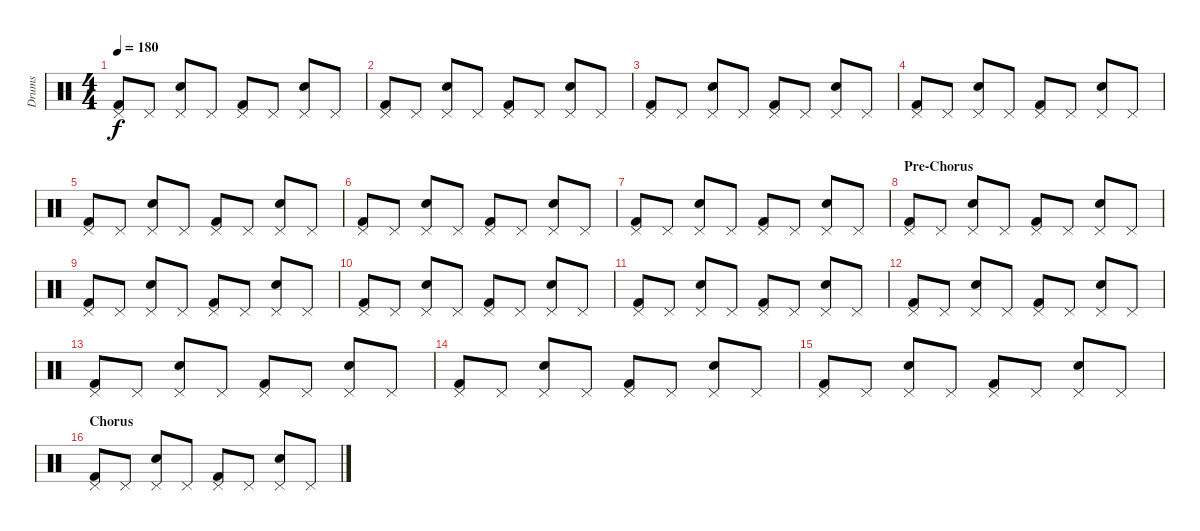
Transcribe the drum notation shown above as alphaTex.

\track ("Drums" "Drums") {instrument percussion}
\staff {score}
\articulation defaults
\ts (4 4)
\tempo 180
\clef neutral
\ks c
("Pedal Hi-Hat (hit)" "Kick (hit) 2").8{dy f} "Pedal Hi-Hat (hit)".8 ("Pedal Hi-Hat (hit)" "Electric Snare (hit)").8 "Pedal Hi-Hat (hit)".8 ("Pedal Hi-Hat (hit)" "Kick (hit) 2").8 "Pedal Hi-Hat (hit)".8 ("Pedal Hi-Hat (hit)" "Electric Snare (hit)").8 "Pedal Hi-Hat (hit)".8 |
("Pedal Hi-Hat (hit)" "Kick (hit) 2").8 "Pedal Hi-Hat (hit)".8 ("Pedal Hi-Hat (hit)" "Electric Snare (hit)").8 "Pedal Hi-Hat (hit)".8 ("Pedal Hi-Hat (hit)" "Kick (hit) 2").8 "Pedal Hi-Hat (hit)".8 ("Pedal Hi-Hat (hit)" "Electric Snare (hit)").8 "Pedal Hi-Hat (hit)".8 |
("Pedal Hi-Hat (hit)" "Kick (hit) 2").8 "Pedal Hi-Hat (hit)".8 ("Pedal Hi-Hat (hit)" "Electric Snare (hit)").8 "Pedal Hi-Hat (hit)".8 ("Pedal Hi-Hat (hit)" "Kick (hit) 2").8 "Pedal Hi-Hat (hit)".8 ("Pedal Hi-Hat (hit)" "Electric Snare (hit)").8 "Pedal Hi-Hat (hit)".8 |
("Pedal Hi-Hat (hit)" "Kick (hit) 2").8 "Pedal Hi-Hat (hit)".8 ("Pedal Hi-Hat (hit)" "Electric Snare (hit)").8 "Pedal Hi-Hat (hit)".8 ("Pedal Hi-Hat (hit)" "Kick (hit) 2").8 "Pedal Hi-Hat (hit)".8 ("Pedal Hi-Hat (hit)" "Electric Snare (hit)").8 "Pedal Hi-Hat (hit)".8 |
("Pedal Hi-Hat (hit)" "Kick (hit) 2").8 "Pedal Hi-Hat (hit)".8 ("Pedal Hi-Hat (hit)" "Electric Snare (hit)").8 "Pedal Hi-Hat (hit)".8 ("Pedal Hi-Hat (hit)" "Kick (hit) 2").8 "Pedal Hi-Hat (hit)".8 ("Pedal Hi-Hat (hit)" "Electric Snare (hit)").8 "Pedal Hi-Hat (hit)".8 |
("Pedal Hi-Hat (hit)" "Kick (hit) 2").8 "Pedal Hi-Hat (hit)".8 ("Pedal Hi-Hat (hit)" "Electric Snare (hit)").8 "Pedal Hi-Hat (hit)".8 ("Pedal Hi-Hat (hit)" "Kick (hit) 2").8 "Pedal Hi-Hat (hit)".8 ("Pedal Hi-Hat (hit)" "Electric Snare (hit)").8 "Pedal Hi-Hat (hit)".8 |
("Pedal Hi-Hat (hit)" "Kick (hit) 2").8 "Pedal Hi-Hat (hit)".8 ("Pedal Hi-Hat (hit)" "Electric Snare (hit)").8 "Pedal Hi-Hat (hit)".8 ("Pedal Hi-Hat (hit)" "Kick (hit) 2").8 "Pedal Hi-Hat (hit)".8 ("Pedal Hi-Hat (hit)" "Electric Snare (hit)").8 "Pedal Hi-Hat (hit)".8 |
\section ("" "Pre-Chorus")
("Pedal Hi-Hat (hit)" "Kick (hit) 2").8 "Pedal Hi-Hat (hit)".8 ("Pedal Hi-Hat (hit)" "Electric Snare (hit)").8 "Pedal Hi-Hat (hit)".8 ("Pedal Hi-Hat (hit)" "Kick (hit) 2").8 "Pedal Hi-Hat (hit)".8 ("Pedal Hi-Hat (hit)" "Electric Snare (hit)").8 "Pedal Hi-Hat (hit)".8 |
("Pedal Hi-Hat (hit)" "Kick (hit) 2").8 "Pedal Hi-Hat (hit)".8 ("Pedal Hi-Hat (hit)" "Electric Snare (hit)").8 "Pedal Hi-Hat (hit)".8 ("Pedal Hi-Hat (hit)" "Kick (hit) 2").8 "Pedal Hi-Hat (hit)".8 ("Pedal Hi-Hat (hit)" "Electric Snare (hit)").8 "Pedal Hi-Hat (hit)".8 |
("Pedal Hi-Hat (hit)" "Kick (hit) 2").8 "Pedal Hi-Hat (hit)".8 ("Pedal Hi-Hat (hit)" "Electric Snare (hit)").8 "Pedal Hi-Hat (hit)".8 ("Pedal Hi-Hat (hit)" "Kick (hit) 2").8 "Pedal Hi-Hat (hit)".8 ("Pedal Hi-Hat (hit)" "Electric Snare (hit)").8 "Pedal Hi-Hat (hit)".8 |
("Pedal Hi-Hat (hit)" "Kick (hit) 2").8 "Pedal Hi-Hat (hit)".8 ("Pedal Hi-Hat (hit)" "Electric Snare (hit)").8 "Pedal Hi-Hat (hit)".8 ("Pedal Hi-Hat (hit)" "Kick (hit) 2").8 "Pedal Hi-Hat (hit)".8 ("Pedal Hi-Hat (hit)" "Electric Snare (hit)").8 "Pedal Hi-Hat (hit)".8 |
("Pedal Hi-Hat (hit)" "Kick (hit) 2").8 "Pedal Hi-Hat (hit)".8 ("Pedal Hi-Hat (hit)" "Electric Snare (hit)").8 "Pedal Hi-Hat (hit)".8 ("Pedal Hi-Hat (hit)" "Kick (hit) 2").8 "Pedal Hi-Hat (hit)".8 ("Pedal Hi-Hat (hit)" "Electric Snare (hit)").8 "Pedal Hi-Hat (hit)".8 |
("Pedal Hi-Hat (hit)" "Kick (hit) 2").8 "Pedal Hi-Hat (hit)".8 ("Pedal Hi-Hat (hit)" "Electric Snare (hit)").8 "Pedal Hi-Hat (hit)".8 ("Pedal Hi-Hat (hit)" "Kick (hit) 2").8 "Pedal Hi-Hat (hit)".8 ("Pedal Hi-Hat (hit)" "Electric Snare (hit)").8 "Pedal Hi-Hat (hit)".8 |
("Pedal Hi-Hat (hit)" "Kick (hit) 2").8 "Pedal Hi-Hat (hit)".8 ("Pedal Hi-Hat (hit)" "Electric Snare (hit)").8 "Pedal Hi-Hat (hit)".8 ("Pedal Hi-Hat (hit)" "Kick (hit) 2").8 "Pedal Hi-Hat (hit)".8 ("Pedal Hi-Hat (hit)" "Electric Snare (hit)").8 "Pedal Hi-Hat (hit)".8 |
("Pedal Hi-Hat (hit)" "Kick (hit) 2").8 "Pedal Hi-Hat (hit)".8 ("Pedal Hi-Hat (hit)" "Electric Snare (hit)").8 "Pedal Hi-Hat (hit)".8 ("Pedal Hi-Hat (hit)" "Kick (hit) 2").8 "Pedal Hi-Hat (hit)".8 ("Pedal Hi-Hat (hit)" "Electric Snare (hit)").8 "Pedal Hi-Hat (hit)".8 |
\section ("" "Chorus")
("Pedal Hi-Hat (hit)" "Kick (hit) 2").8 "Pedal Hi-Hat (hit)".8 ("Pedal Hi-Hat (hit)" "Electric Snare (hit)").8 "Pedal Hi-Hat (hit)".8 ("Pedal Hi-Hat (hit)" "Kick (hit) 2").8 "Pedal Hi-Hat (hit)".8 ("Pedal Hi-Hat (hit)" "Electric Snare (hit)").8 "Pedal Hi-Hat (hit)".8
